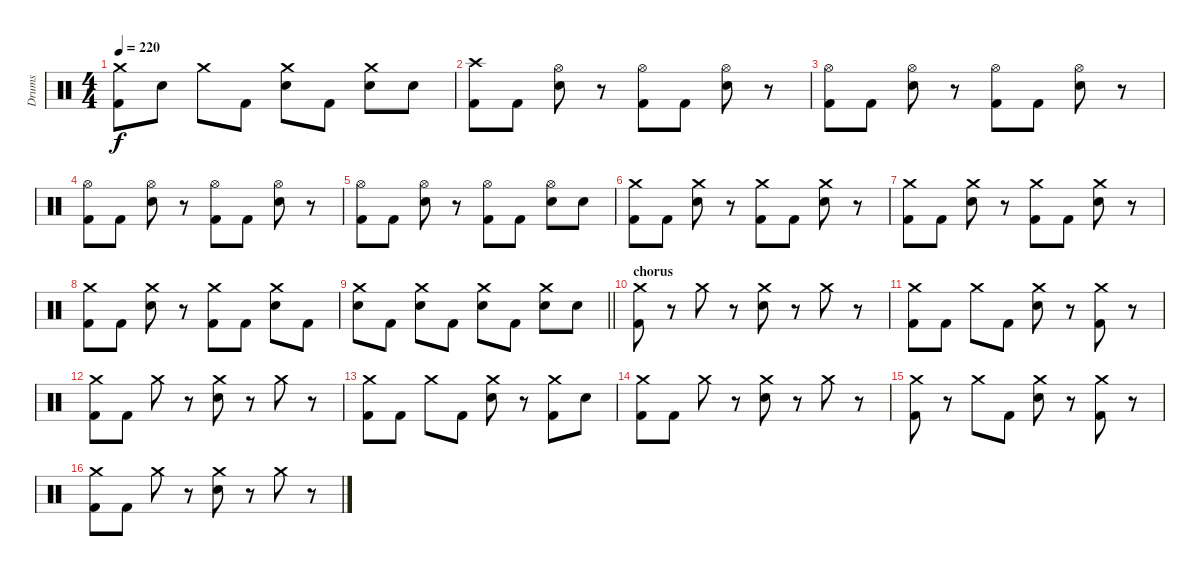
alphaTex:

\track ("Drums" "Drums") {instrument percussion}
\staff {score}
\articulation defaults
\ts (4 4)
\tempo 220
\clef neutral
\ks c
("Crash medium (hit)" "Kick (hit) 2").8{dy f} "Electric Snare (hit)".8 "Crash medium (hit)".8 "Kick (hit) 2".8 ("Crash medium (hit)" "Electric Snare (hit)").8 "Kick (hit) 2".8 ("Crash medium (hit)" "Electric Snare (hit)").8 "Electric Snare (hit)".8 |
("Crash high (hit)" "Kick (hit) 2").8 "Kick (hit) 2".8 ("Hi-Hat (open)" "Electric Snare (hit)").8 r.8 ("Hi-Hat (open)" "Kick (hit) 2").8 "Kick (hit) 2".8 ("Hi-Hat (open)" "Electric Snare (hit)").8 r.8 |
("Hi-Hat (open)" "Kick (hit) 2").8 "Kick (hit) 2".8 ("Hi-Hat (open)" "Electric Snare (hit)").8 r.8 ("Hi-Hat (open)" "Kick (hit) 2").8 "Kick (hit) 2".8 ("Hi-Hat (open)" "Electric Snare (hit)").8 r.8 |
("Hi-Hat (open)" "Kick (hit) 2").8 "Kick (hit) 2".8 ("Hi-Hat (open)" "Electric Snare (hit)").8 r.8 ("Hi-Hat (open)" "Kick (hit) 2").8 "Kick (hit) 2".8 ("Hi-Hat (open)" "Electric Snare (hit)").8 r.8 |
("Hi-Hat (open)" "Kick (hit) 2").8 "Kick (hit) 2".8 ("Hi-Hat (open)" "Electric Snare (hit)").8 r.8 ("Hi-Hat (open)" "Kick (hit) 2").8 "Kick (hit) 2".8 ("Hi-Hat (open)" "Electric Snare (hit)").8 "Electric Snare (hit)".8 |
("Crash medium (hit)" "Kick (hit) 2").8 "Kick (hit) 2".8 ("Crash medium (hit)" "Electric Snare (hit)").8 r.8 ("Crash medium (hit)" "Kick (hit) 2").8 "Kick (hit) 2".8 ("Crash medium (hit)" "Electric Snare (hit)").8 r.8 |
("Crash medium (hit)" "Kick (hit) 2").8 "Kick (hit) 2".8 ("Crash medium (hit)" "Electric Snare (hit)").8 r.8 ("Crash medium (hit)" "Kick (hit) 2").8 "Kick (hit) 2".8 ("Crash medium (hit)" "Electric Snare (hit)").8 r.8 |
("Crash medium (hit)" "Kick (hit) 2").8 "Kick (hit) 2".8 ("Crash medium (hit)" "Electric Snare (hit)").8 r.8 ("Crash medium (hit)" "Kick (hit) 2").8 "Kick (hit) 2".8 ("Crash medium (hit)" "Electric Snare (hit)").8 "Kick (hit) 2".8 |
\barLineRight lightlight
("Crash medium (hit)" "Electric Snare (hit)").8 "Kick (hit) 2".8 ("Crash medium (hit)" "Electric Snare (hit)").8 "Kick (hit) 2".8 ("Crash medium (hit)" "Electric Snare (hit)").8 "Kick (hit) 2".8 ("Crash medium (hit)" "Electric Snare (hit)").8 "Electric Snare (hit)".8 |
\section ("" "chorus")
("Crash medium (hit)" "Kick (hit) 2").8 r.8 "Crash medium (hit)".8 r.8 ("Crash medium (hit)" "Electric Snare (hit)").8 r.8 "Crash medium (hit)".8 r.8 |
("Crash medium (hit)" "Kick (hit) 2").8 "Kick (hit) 2".8 "Crash medium (hit)".8 "Kick (hit) 2".8 ("Crash medium (hit)" "Electric Snare (hit)").8 r.8 ("Crash medium (hit)" "Kick (hit) 2").8 r.8 |
("Crash medium (hit)" "Kick (hit) 2").8 "Kick (hit) 2".8 "Crash medium (hit)".8 r.8 ("Crash medium (hit)" "Electric Snare (hit)").8 r.8 "Crash medium (hit)".8 r.8 |
("Crash medium (hit)" "Kick (hit) 2").8 "Kick (hit) 2".8 "Crash medium (hit)".8 "Kick (hit) 2".8 ("Crash medium (hit)" "Electric Snare (hit)").8 r.8 ("Crash medium (hit)" "Kick (hit) 2").8 "Electric Snare (hit)".8 |
("Crash medium (hit)" "Kick (hit) 2").8 "Kick (hit) 2".8 "Crash medium (hit)".8 r.8 ("Crash medium (hit)" "Electric Snare (hit)").8 r.8 "Crash medium (hit)".8 r.8 |
("Crash medium (hit)" "Kick (hit) 2").8 r.8 "Crash medium (hit)".8 "Kick (hit) 2".8 ("Crash medium (hit)" "Electric Snare (hit)").8 r.8 ("Crash medium (hit)" "Kick (hit) 2").8 r.8 |
("Crash medium (hit)" "Kick (hit) 2").8 "Kick (hit) 2".8 "Crash medium (hit)".8 r.8 ("Crash medium (hit)" "Electric Snare (hit)").8 r.8 "Crash medium (hit)".8 r.8
